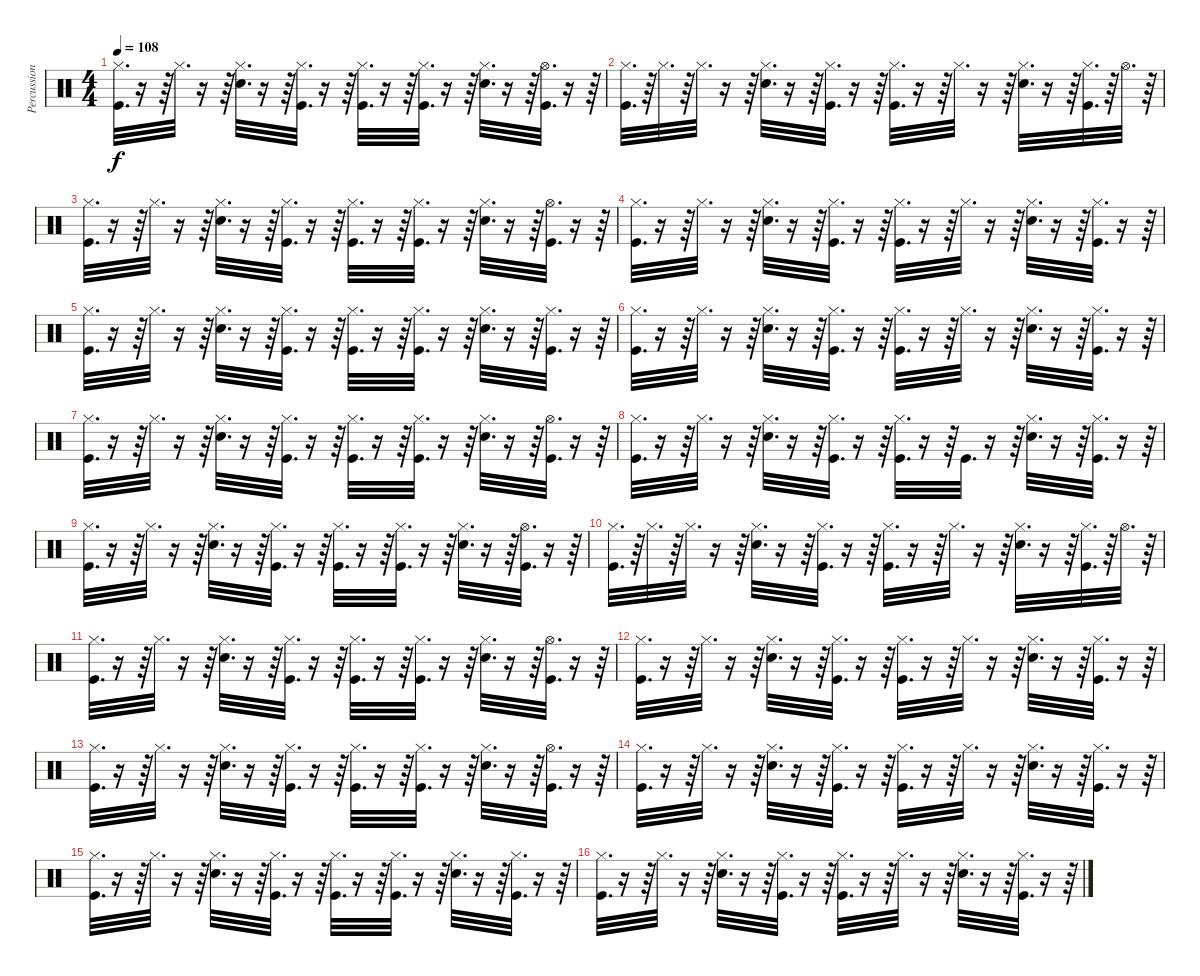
\track ("Percussions" "Percussion") {instrument percussion}
\staff {score}
\articulation defaults
\ts (4 4)
\tempo 108
\clef neutral
\ks c
("Hi-Hat (closed)" "Kick (hit)").32{d dy f} r.16 r.64 "Hi-Hat (closed)".32{d} r.16 r.64 ("Hi-Hat (closed)" "Snare (hit) 2").32{d} r.16 r.64 ("Hi-Hat (closed)" "Kick (hit)").32{d} r.16 r.64 ("Hi-Hat (closed)" "Kick (hit)").32{d} r.16 r.64 ("Hi-Hat (closed)" "Kick (hit)").32{d} r.16 r.64 ("Hi-Hat (closed)" "Snare (hit) 2").32{d} r.16 r.64 ("Hi-Hat (open)" "Kick (hit)").32{d} r.16 r.64 |
("Hi-Hat (closed)" "Kick (hit)").32{d} r.64 "Hi-Hat (closed)".32{d} r.64 "Hi-Hat (closed)".32{d} r.16 r.64 ("Hi-Hat (closed)" "Snare (hit) 2").32{d} r.16 r.64 ("Hi-Hat (closed)" "Kick (hit)").32{d} r.16 r.64 ("Hi-Hat (closed)" "Kick (hit)").32{d} r.16 r.64 "Hi-Hat (closed)".32{d} r.16 r.64 ("Hi-Hat (closed)" "Snare (hit) 2").32{d} r.16 r.64 ("Hi-Hat (closed)" "Kick (hit)").32{d} r.64 "Hi-Hat (open)".32{d} r.64 |
("Hi-Hat (closed)" "Kick (hit)").32{d} r.16 r.64 "Hi-Hat (closed)".32{d} r.16 r.64 ("Hi-Hat (closed)" "Snare (hit) 2").32{d} r.16 r.64 ("Hi-Hat (closed)" "Kick (hit)").32{d} r.16 r.64 ("Hi-Hat (closed)" "Kick (hit)").32{d} r.16 r.64 ("Hi-Hat (closed)" "Kick (hit)").32{d} r.16 r.64 ("Hi-Hat (closed)" "Snare (hit) 2").32{d} r.16 r.64 ("Hi-Hat (open)" "Kick (hit)").32{d} r.16 r.64 |
("Hi-Hat (closed)" "Kick (hit)").32{d} r.16 r.64 "Hi-Hat (closed)".32{d} r.16 r.64 ("Hi-Hat (closed)" "Snare (hit) 2").32{d} r.16 r.64 ("Hi-Hat (closed)" "Kick (hit)").32{d} r.16 r.64 ("Hi-Hat (closed)" "Kick (hit)").32{d} r.16 r.64 "Hi-Hat (closed)".32{d} r.16 r.64 ("Hi-Hat (closed)" "Snare (hit) 2").32{d} r.16 r.64 ("Hi-Hat (closed)" "Kick (hit)").32{d} r.16 r.64 |
("Hi-Hat (closed)" "Kick (hit)").32{d} r.16 r.64 "Hi-Hat (closed)".32{d} r.16 r.64 ("Hi-Hat (closed)" "Snare (hit) 2").32{d} r.16 r.64 ("Hi-Hat (closed)" "Kick (hit)").32{d} r.16 r.64 ("Hi-Hat (closed)" "Kick (hit)").32{d} r.16 r.64 ("Hi-Hat (closed)" "Kick (hit)").32{d} r.16 r.64 ("Hi-Hat (closed)" "Snare (hit) 2").32{d} r.16 r.64 ("Hi-Hat (closed)" "Kick (hit)").32{d} r.16 r.64 |
("Hi-Hat (closed)" "Kick (hit)").32{d} r.16 r.64 "Hi-Hat (closed)".32{d} r.16 r.64 ("Hi-Hat (closed)" "Snare (hit) 2").32{d} r.16 r.64 ("Hi-Hat (closed)" "Kick (hit)").32{d} r.16 r.64 ("Hi-Hat (closed)" "Kick (hit)").32{d} r.16 r.64 "Hi-Hat (closed)".32{d} r.16 r.64 ("Hi-Hat (closed)" "Snare (hit) 2").32{d} r.16 r.64 ("Hi-Hat (closed)" "Kick (hit)").32{d} r.16 r.64 |
("Hi-Hat (closed)" "Kick (hit)").32{d} r.16 r.64 "Hi-Hat (closed)".32{d} r.16 r.64 ("Hi-Hat (closed)" "Snare (hit) 2").32{d} r.16 r.64 ("Hi-Hat (closed)" "Kick (hit)").32{d} r.16 r.64 ("Hi-Hat (closed)" "Kick (hit)").32{d} r.16 r.64 ("Hi-Hat (closed)" "Kick (hit)").32{d} r.16 r.64 ("Hi-Hat (closed)" "Snare (hit) 2").32{d} r.16 r.64 ("Hi-Hat (open)" "Kick (hit)").32{d} r.16 r.64 |
("Hi-Hat (closed)" "Kick (hit)").32{d} r.16 r.64 "Hi-Hat (closed)".32{d} r.16 r.64 ("Hi-Hat (closed)" "Snare (hit) 2").32{d} r.16 r.64 ("Hi-Hat (closed)" "Kick (hit)").32{d} r.16 r.64 ("Hi-Hat (closed)" "Kick (hit)").32{d} r.16 r.64 "Kick (hit)".32{d} r.16 r.64 ("Hi-Hat (closed)" "Snare (hit) 2").32{d} r.16 r.64 ("Hi-Hat (closed)" "Kick (hit)").32{d} r.16 r.64 |
("Hi-Hat (closed)" "Kick (hit)").32{d} r.16 r.64 "Hi-Hat (closed)".32{d} r.16 r.64 ("Hi-Hat (closed)" "Snare (hit) 2").32{d} r.16 r.64 ("Hi-Hat (closed)" "Kick (hit)").32{d} r.16 r.64 ("Hi-Hat (closed)" "Kick (hit)").32{d} r.16 r.64 ("Hi-Hat (closed)" "Kick (hit)").32{d} r.16 r.64 ("Hi-Hat (closed)" "Snare (hit) 2").32{d} r.16 r.64 ("Hi-Hat (open)" "Kick (hit)").32{d} r.16 r.64 |
("Hi-Hat (closed)" "Kick (hit)").32{d} r.64 "Hi-Hat (closed)".32{d} r.64 "Hi-Hat (closed)".32{d} r.16 r.64 ("Hi-Hat (closed)" "Snare (hit) 2").32{d} r.16 r.64 ("Hi-Hat (closed)" "Kick (hit)").32{d} r.16 r.64 ("Hi-Hat (closed)" "Kick (hit)").32{d} r.16 r.64 "Hi-Hat (closed)".32{d} r.16 r.64 ("Hi-Hat (closed)" "Snare (hit) 2").32{d} r.16 r.64 ("Hi-Hat (closed)" "Kick (hit)").32{d} r.64 "Hi-Hat (open)".32{d} r.64 |
("Hi-Hat (closed)" "Kick (hit)").32{d} r.16 r.64 "Hi-Hat (closed)".32{d} r.16 r.64 ("Hi-Hat (closed)" "Snare (hit) 2").32{d} r.16 r.64 ("Hi-Hat (closed)" "Kick (hit)").32{d} r.16 r.64 ("Hi-Hat (closed)" "Kick (hit)").32{d} r.16 r.64 ("Hi-Hat (closed)" "Kick (hit)").32{d} r.16 r.64 ("Hi-Hat (closed)" "Snare (hit) 2").32{d} r.16 r.64 ("Hi-Hat (open)" "Kick (hit)").32{d} r.16 r.64 |
("Hi-Hat (closed)" "Kick (hit)").32{d} r.16 r.64 "Hi-Hat (closed)".32{d} r.16 r.64 ("Hi-Hat (closed)" "Snare (hit) 2").32{d} r.16 r.64 ("Hi-Hat (closed)" "Kick (hit)").32{d} r.16 r.64 ("Hi-Hat (closed)" "Kick (hit)").32{d} r.16 r.64 "Hi-Hat (closed)".32{d} r.16 r.64 ("Hi-Hat (closed)" "Snare (hit) 2").32{d} r.16 r.64 ("Hi-Hat (closed)" "Kick (hit)").32{d} r.16 r.64 |
("Hi-Hat (closed)" "Kick (hit)").32{d} r.16 r.64 "Hi-Hat (closed)".32{d} r.16 r.64 ("Hi-Hat (closed)" "Snare (hit) 2").32{d} r.16 r.64 ("Hi-Hat (closed)" "Kick (hit)").32{d} r.16 r.64 ("Hi-Hat (closed)" "Kick (hit)").32{d} r.16 r.64 ("Hi-Hat (closed)" "Kick (hit)").32{d} r.16 r.64 ("Hi-Hat (closed)" "Snare (hit) 2").32{d} r.16 r.64 ("Hi-Hat (open)" "Kick (hit)").32{d} r.16 r.64 |
("Hi-Hat (closed)" "Kick (hit)").32{d} r.16 r.64 "Hi-Hat (closed)".32{d} r.16 r.64 ("Hi-Hat (closed)" "Snare (hit) 2").32{d} r.16 r.64 ("Hi-Hat (closed)" "Kick (hit)").32{d} r.16 r.64 ("Hi-Hat (closed)" "Kick (hit)").32{d} r.16 r.64 "Hi-Hat (closed)".32{d} r.16 r.64 ("Hi-Hat (closed)" "Snare (hit) 2").32{d} r.16 r.64 ("Hi-Hat (closed)" "Kick (hit)").32{d} r.16 r.64 |
("Hi-Hat (closed)" "Kick (hit)").32{d} r.16 r.64 "Hi-Hat (closed)".32{d} r.16 r.64 ("Hi-Hat (closed)" "Snare (hit) 2").32{d} r.16 r.64 ("Hi-Hat (closed)" "Kick (hit)").32{d} r.16 r.64 ("Hi-Hat (closed)" "Kick (hit)").32{d} r.16 r.64 ("Hi-Hat (closed)" "Kick (hit)").32{d} r.16 r.64 ("Hi-Hat (closed)" "Snare (hit) 2").32{d} r.16 r.64 ("Hi-Hat (closed)" "Kick (hit)").32{d} r.16 r.64 |
("Hi-Hat (closed)" "Kick (hit)").32{d} r.16 r.64 "Hi-Hat (closed)".32{d} r.16 r.64 ("Hi-Hat (closed)" "Snare (hit) 2").32{d} r.16 r.64 ("Hi-Hat (closed)" "Kick (hit)").32{d} r.16 r.64 ("Hi-Hat (closed)" "Kick (hit)").32{d} r.16 r.64 "Hi-Hat (closed)".32{d} r.16 r.64 ("Hi-Hat (closed)" "Snare (hit) 2").32{d} r.16 r.64 ("Hi-Hat (closed)" "Kick (hit)").32{d} r.16 r.64
